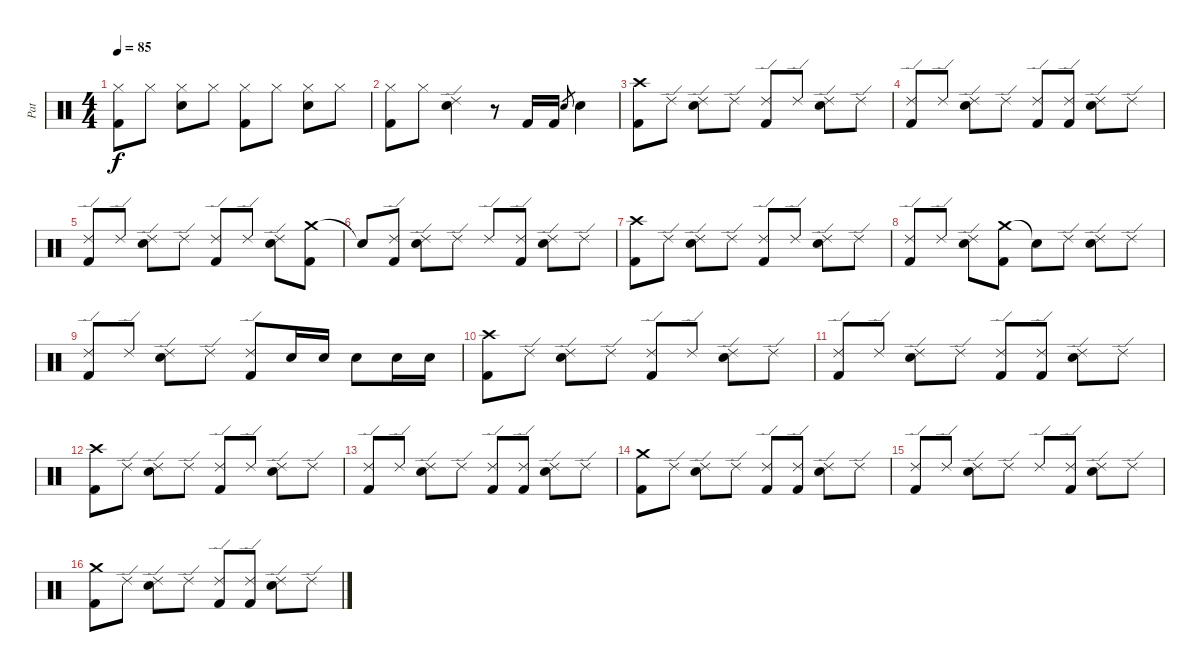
\track ("Pat" "Pat") {instrument percussion}
\staff {score}
\articulation defaults
\ts (4 4)
\tempo 85
\clef neutral
\ks c
("Hi-Hat (closed)" "Kick (hit) 2").8{dy f} "Hi-Hat (closed)".8 ("Hi-Hat (closed)" "Electric Snare (hit)").8 "Hi-Hat (closed)".8 ("Hi-Hat (closed)" "Kick (hit) 2").8 "Hi-Hat (closed)".8 ("Hi-Hat (closed)" "Electric Snare (hit)").8 "Hi-Hat (closed)".8 |
("Hi-Hat (closed)" "Kick (hit) 2").8 "Hi-Hat (closed)".8 ("Ride (edge) 2" "Electric Snare (hit)").4 r.8 "Kick (hit) 2".16 "Kick (hit) 2".16 "Electric Snare (hit)".8{gr} "Electric Snare (hit)".4 |
("Crash high (hit)" "Kick (hit) 2").8 "Ride (edge) 2".8 ("Ride (edge) 2" "Electric Snare (hit)").8 "Ride (edge) 2".8 ("Ride (edge) 2" "Kick (hit) 2").8 "Ride (edge) 2".8 ("Ride (edge) 2" "Electric Snare (hit)").8 "Ride (edge) 2".8 |
("Ride (edge) 2" "Kick (hit) 2").8 "Ride (edge) 2".8 ("Ride (edge) 2" "Electric Snare (hit)").8 "Ride (edge) 2".8 ("Ride (edge) 2" "Kick (hit) 2").8 ("Ride (edge) 2" "Kick (hit) 2").8 ("Ride (edge) 2" "Electric Snare (hit)").8 "Ride (edge) 2".8 |
("Ride (edge) 2" "Kick (hit) 2").8 "Ride (edge) 2".8 ("Ride (edge) 2" "Electric Snare (hit)").8 "Ride (edge) 2".8 ("Ride (edge) 2" "Kick (hit) 2").8 "Ride (edge) 2".8 ("Ride (edge) 2" "Electric Snare (hit)").8 ("Crash medium (hit)" "Kick (hit) 2").8 |
"Snare (hit)"{t}.8 ("Ride (edge) 2" "Kick (hit) 2").8 ("Ride (edge) 2" "Electric Snare (hit)").8 "Ride (edge) 2".8 "Ride (edge) 2".8 ("Ride (edge) 2" "Kick (hit) 2").8 ("Ride (edge) 2" "Electric Snare (hit)").8 "Ride (edge) 2".8 |
("Crash high (hit)" "Kick (hit) 2").8 "Ride (edge) 2".8 ("Ride (edge) 2" "Electric Snare (hit)").8 "Ride (edge) 2".8 ("Ride (edge) 2" "Kick (hit) 2").8 "Ride (edge) 2".8 ("Ride (edge) 2" "Electric Snare (hit)").8 "Ride (edge) 2".8 |
("Ride (edge) 2" "Kick (hit) 2").8 "Ride (edge) 2".8 ("Ride (edge) 2" "Electric Snare (hit)").8 ("Crash medium (hit)" "Kick (hit) 2").8 "Snare (hit)"{t}.8 "Ride (edge) 2".8 ("Ride (edge) 2" "Electric Snare (hit)").8 "Ride (edge) 2".8 |
("Ride (edge) 2" "Kick (hit) 2").8 "Ride (edge) 2".8 ("Ride (edge) 2" "Electric Snare (hit)").8 "Ride (edge) 2".8 ("Ride (edge) 2" "Kick (hit) 2").8 "Electric Snare (hit)".16 "Electric Snare (hit)".16 "Electric Snare (hit)".8 "Electric Snare (hit)".16 "Electric Snare (hit)".16 |
("Crash high (hit)" "Kick (hit) 2").8 "Ride (edge) 2".8 ("Ride (edge) 2" "Electric Snare (hit)").8 "Ride (edge) 2".8 ("Ride (edge) 2" "Kick (hit) 2").8 "Ride (edge) 2".8 ("Ride (edge) 2" "Electric Snare (hit)").8 "Ride (edge) 2".8 |
("Ride (edge) 2" "Kick (hit) 2").8 "Ride (edge) 2".8 ("Ride (edge) 2" "Electric Snare (hit)").8 "Ride (edge) 2".8 ("Ride (edge) 2" "Kick (hit) 2").8 ("Ride (edge) 2" "Kick (hit) 2").8 ("Ride (edge) 2" "Electric Snare (hit)").8 "Ride (edge) 2".8 |
("Crash high (hit)" "Kick (hit) 2").8 "Ride (edge) 2".8 ("Ride (edge) 2" "Electric Snare (hit)").8 "Ride (edge) 2".8 ("Ride (edge) 2" "Kick (hit) 2").8 "Ride (edge) 2".8 ("Ride (edge) 2" "Electric Snare (hit)").8 "Ride (edge) 2".8 |
("Ride (edge) 2" "Kick (hit) 2").8 "Ride (edge) 2".8 ("Ride (edge) 2" "Electric Snare (hit)").8 "Ride (edge) 2".8 ("Ride (edge) 2" "Kick (hit) 2").8 ("Ride (edge) 2" "Kick (hit) 2").8 ("Ride (edge) 2" "Electric Snare (hit)").8 "Ride (edge) 2".8 |
("Crash medium (hit)" "Kick (hit) 2").8 "Ride (edge) 2".8 ("Ride (edge) 2" "Electric Snare (hit)").8 "Ride (edge) 2".8 ("Ride (edge) 2" "Kick (hit) 2").8 ("Ride (edge) 2" "Kick (hit) 2").8 ("Ride (edge) 2" "Electric Snare (hit)").8 "Ride (edge) 2".8 |
("Ride (edge) 2" "Kick (hit) 2").8 "Ride (edge) 2".8 ("Ride (edge) 2" "Electric Snare (hit)").8 "Ride (edge) 2".8 "Ride (edge) 2".8 ("Ride (edge) 2" "Kick (hit) 2").8 ("Ride (edge) 2" "Electric Snare (hit)").8 "Ride (edge) 2".8 |
("Crash medium (hit)" "Kick (hit) 2").8 "Ride (edge) 2".8 ("Ride (edge) 2" "Electric Snare (hit)").8 "Ride (edge) 2".8 ("Ride (edge) 2" "Kick (hit) 2").8 ("Ride (edge) 2" "Kick (hit) 2").8 ("Ride (edge) 2" "Electric Snare (hit)").8 "Ride (edge) 2".8
